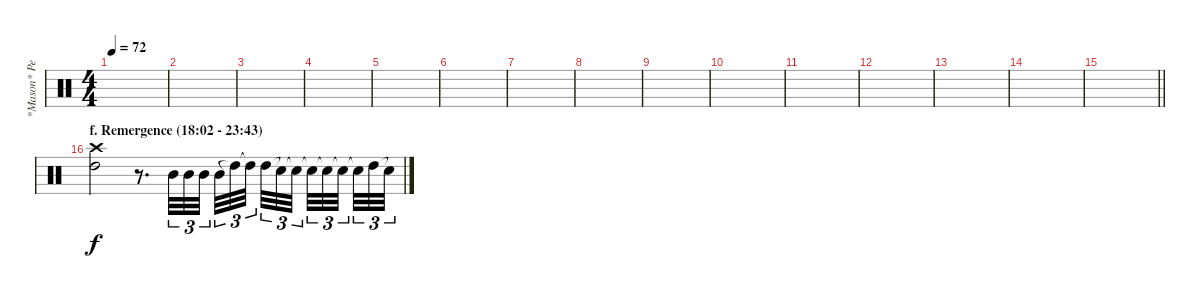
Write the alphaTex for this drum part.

\track ("*Mason* Percussion" "*Mason* Pe") {instrument percussion}
\staff {score}
\articulation defaults
\ts (4 4)
\tempo 72
\clef neutral
\ks c
|
|
|
|
|
|
|
|
|
|
|
|
|
|
\barLineRight lightlight
|
\section ("" "f. Remergence (18:02 - 23:43) ")
("Crash high (hit)" "High Tom (hit)").2{dy f volume 0} r.8{d volume 16} "Mid Tom (hit)".32{tu (3 2)} "Mid Tom (hit)".32{tu (3 2)} "Mid Tom (hit)".32{tu (3 2)} "Mid Tom (hit)".32{tu (3 2)} "High Tom (hit)"{t}.32{tu (3 2)} "High Tom (hit)"{t}.32{tu (3 2) beam splitsecondary} "High Tom (hit)".32{tu (3 2)} "Snare (hit)"{t}.32{tu (3 2)} "Snare (hit)"{t}.32{tu (3 2) beam splitsecondary} "Snare (hit)"{t}.32{tu (3 2)} "Snare (hit)"{t}.32{tu (3 2)} "Snare (hit)"{t}.32{tu (3 2) beam splitsecondary} "Snare (hit)"{t}.32{tu (3 2)} "High Tom (hit)".32{tu (3 2)} "Snare (hit)"{t}.32{tu (3 2)}
